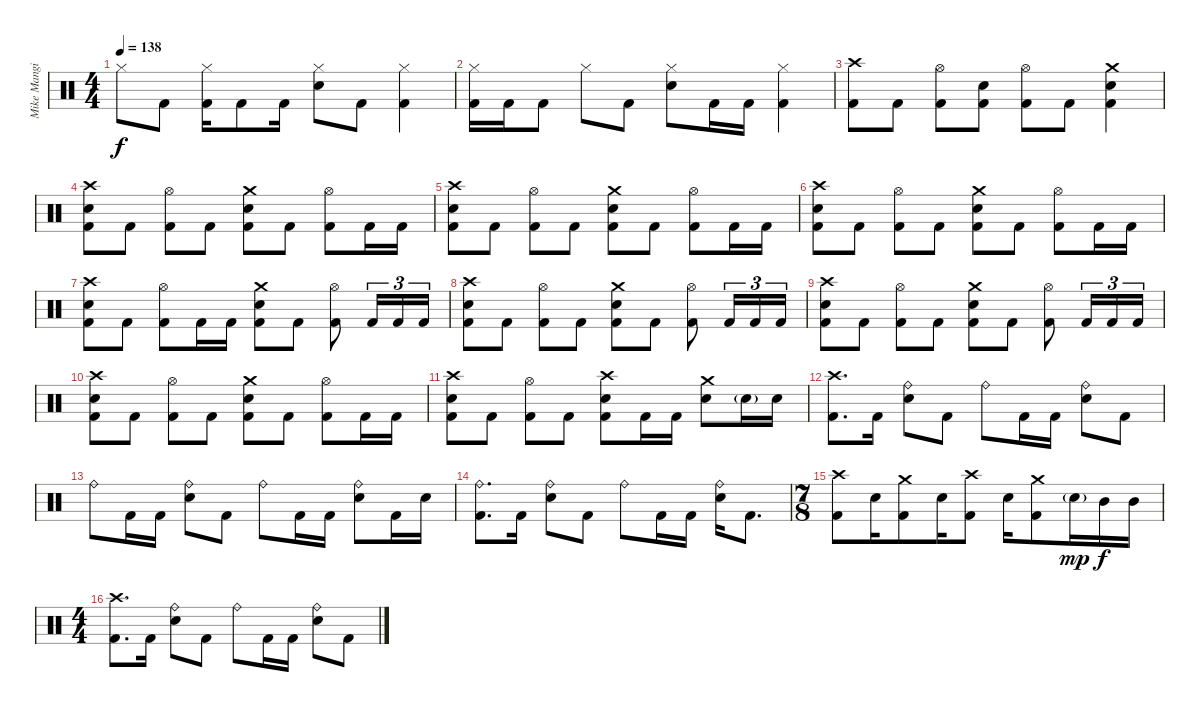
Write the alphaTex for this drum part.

\track ("Mike Mangini" "Mike Mangi") {instrument percussion}
\staff {score}
\articulation defaults
\ts (4 4)
\tempo 138
\clef neutral
\ks c "Hi-Hat (closed)".8{dy f} "Kick (hit) 2".8
("Hi-Hat (closed)" "Kick (hit) 2").16 "Kick (hit) 2".8 "Kick (hit) 2".16 ("Hi-Hat (closed)" "Electric Snare (hit)").8 "Kick (hit) 2".8 ("Hi-Hat (closed)" "Kick (hit) 2").4 |
("Hi-Hat (closed)" "Kick (hit) 2").16 "Kick (hit) 2".16 "Kick (hit) 2".8 "Hi-Hat (closed)".8 "Kick (hit) 2".8 ("Hi-Hat (closed)" "Electric Snare (hit)").8 "Kick (hit) 2".16 "Kick (hit) 2".16 ("Hi-Hat (closed)" "Kick (hit) 2").4 |
("Crash high (hit)" "Kick (hit) 2").8 "Kick (hit) 2".8 ("Hi-Hat (open)" "Kick (hit) 2").8 ("Electric Snare (hit)" "Kick (hit) 2").8 ("Hi-Hat (open)" "Kick (hit) 2").8 "Kick (hit) 2".8 ("Crash medium (hit)" "Electric Snare (hit)" "Kick (hit) 2").4 |
("Crash high (hit)" "Electric Snare (hit)" "Kick (hit) 2").8 "Kick (hit) 2".8 ("Hi-Hat (open)" "Kick (hit) 2").8 "Kick (hit) 2".8 ("Crash medium (hit)" "Electric Snare (hit)" "Kick (hit) 2").8 "Kick (hit) 2".8 ("Hi-Hat (open)" "Kick (hit) 2").8 "Kick (hit) 2".16 "Kick (hit) 2".16 |
("Crash high (hit)" "Electric Snare (hit)" "Kick (hit) 2").8 "Kick (hit) 2".8 ("Hi-Hat (open)" "Kick (hit) 2").8 "Kick (hit) 2".8 ("Crash medium (hit)" "Electric Snare (hit)" "Kick (hit) 2").8 "Kick (hit) 2".8 ("Hi-Hat (open)" "Kick (hit) 2").8 "Kick (hit) 2".16 "Kick (hit) 2".16 |
("Crash high (hit)" "Electric Snare (hit)" "Kick (hit) 2").8 "Kick (hit) 2".8 ("Hi-Hat (open)" "Kick (hit) 2").8 "Kick (hit) 2".8 ("Crash medium (hit)" "Electric Snare (hit)" "Kick (hit) 2").8 "Kick (hit) 2".8 ("Hi-Hat (open)" "Kick (hit) 2").8 "Kick (hit) 2".16 "Kick (hit) 2".16 |
("Crash high (hit)" "Electric Snare (hit)" "Kick (hit) 2").8 "Kick (hit) 2".8 ("Hi-Hat (open)" "Kick (hit) 2").8 "Kick (hit) 2".16 "Kick (hit) 2".16 ("Crash medium (hit)" "Electric Snare (hit)" "Kick (hit) 2").8 "Kick (hit) 2".8 ("Hi-Hat (open)" "Kick (hit) 2").8 "Kick (hit) 2".16{tu (3 2)} "Kick (hit) 2".16{tu (3 2)} "Kick (hit) 2".16{tu (3 2)} |
("Crash high (hit)" "Electric Snare (hit)" "Kick (hit) 2").8 "Kick (hit) 2".8 ("Hi-Hat (open)" "Kick (hit) 2").8 "Kick (hit) 2".8 ("Crash medium (hit)" "Electric Snare (hit)" "Kick (hit) 2").8 "Kick (hit) 2".8 ("Hi-Hat (open)" "Kick (hit) 2").8 "Kick (hit) 2".16{tu (3 2)} "Kick (hit) 2".16{tu (3 2)} "Kick (hit) 2".16{tu (3 2)} |
("Crash high (hit)" "Electric Snare (hit)" "Kick (hit) 2").8 "Kick (hit) 2".8 ("Hi-Hat (open)" "Kick (hit) 2").8 "Kick (hit) 2".8 ("Crash medium (hit)" "Electric Snare (hit)" "Kick (hit) 2").8 "Kick (hit) 2".8 ("Hi-Hat (open)" "Kick (hit) 2").8 "Kick (hit) 2".16{tu (3 2)} "Kick (hit) 2".16{tu (3 2)} "Kick (hit) 2".16{tu (3 2)} |
("Crash high (hit)" "Electric Snare (hit)" "Kick (hit) 2").8 "Kick (hit) 2".8 ("Hi-Hat (open)" "Kick (hit) 2").8 "Kick (hit) 2".8 ("Crash medium (hit)" "Electric Snare (hit)" "Kick (hit) 2").8 "Kick (hit) 2".8 ("Hi-Hat (open)" "Kick (hit) 2").8 "Kick (hit) 2".16 "Kick (hit) 2".16 |
("Crash high (hit)" "Electric Snare (hit)" "Kick (hit) 2").8 "Kick (hit) 2".8 ("Hi-Hat (open)" "Kick (hit) 2").8 "Kick (hit) 2".8 ("Crash high (hit)" "Electric Snare (hit)" "Kick (hit) 2").8 "Kick (hit) 2".16 "Kick (hit) 2".16 ("Crash medium (hit)" "Electric Snare (hit)").8 "Electric Snare (hit)"{g}.16 "Electric Snare (hit)".16 |
("Crash high (hit)" "Kick (hit) 2").8{d} "Kick (hit) 2".16 ("Ride (bell)" "Electric Snare (hit)").8 "Kick (hit) 2".8 "Ride (bell)".8 "Kick (hit) 2".16 "Kick (hit) 2".16 ("Ride (bell)" "Electric Snare (hit)").8 "Kick (hit) 2".8 |
"Ride (bell)".8 "Kick (hit) 2".16 "Kick (hit) 2".16 ("Ride (bell)" "Electric Snare (hit)").8 "Kick (hit) 2".8 "Ride (bell)".8 "Kick (hit) 2".16 "Kick (hit) 2".16 ("Ride (bell)" "Electric Snare (hit)").8 "Kick (hit) 2".16 "Electric Snare (hit)".16 |
("Ride (bell)" "Kick (hit) 2").8{d} "Kick (hit) 2".16 ("Ride (bell)" "Electric Snare (hit)").8 "Kick (hit) 2".8 "Ride (bell)".8 "Kick (hit) 2".16 "Kick (hit) 2".16 ("Ride (bell)" "Electric Snare (hit)").16 "Kick (hit) 2".8{d} |
\ts (7 8)
("Crash high (hit)" "Kick (hit) 2").8 "Electric Snare (hit)".16 ("Crash medium (hit)" "Kick (hit) 2").8 "Electric Snare (hit)".16 ("Crash high (hit)" "Kick (hit) 2").8 "Electric Snare (hit)".16 ("Crash medium (hit)" "Kick (hit) 2").8 "Electric Snare (hit)"{g}.16{dy mp} "Mid Tom (hit)".16{dy f} "Mid Tom (hit)".16 |
\ts (4 4)
("Crash high (hit)" "Kick (hit) 2").8{d} "Kick (hit) 2".16 ("Ride (bell)" "Electric Snare (hit)").8 "Kick (hit) 2".8 "Ride (bell)".8 "Kick (hit) 2".16 "Kick (hit) 2".16 ("Ride (bell)" "Electric Snare (hit)").8 "Kick (hit) 2".8
